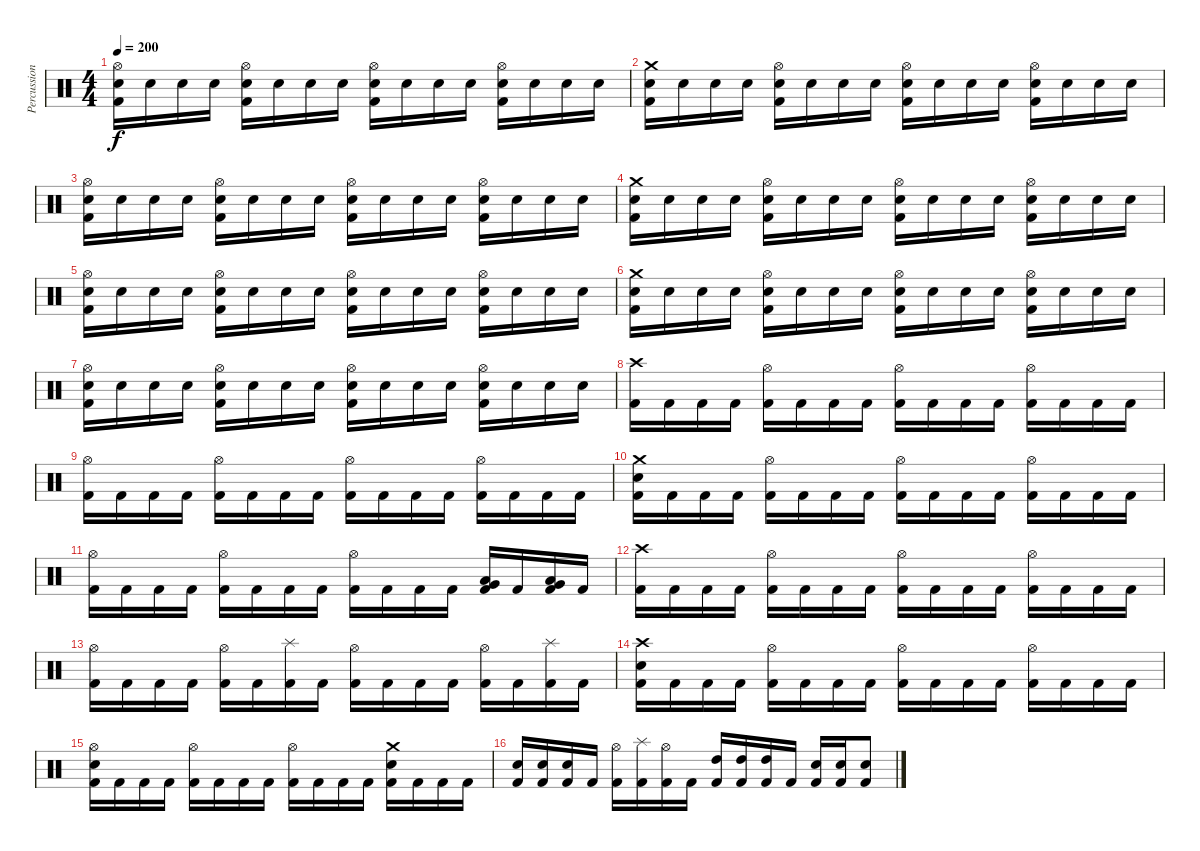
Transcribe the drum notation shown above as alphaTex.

\track ("Percussions" "Percussion") {instrument percussion}
\staff {score}
\articulation defaults
\ts (4 4)
\tempo 200
\clef neutral
\ks c
("Hi-Hat (open)" "Electric Snare (hit)" "Kick (hit) 2").16{dy f} "Electric Snare (hit)".16 "Electric Snare (hit)".16 "Electric Snare (hit)".16 ("Hi-Hat (open)" "Electric Snare (hit)" "Kick (hit) 2").16 "Electric Snare (hit)".16 "Electric Snare (hit)".16 "Electric Snare (hit)".16 ("Hi-Hat (open)" "Electric Snare (hit)" "Kick (hit) 2").16 "Electric Snare (hit)".16 "Electric Snare (hit)".16 "Electric Snare (hit)".16 ("Hi-Hat (open)" "Electric Snare (hit)" "Kick (hit) 2").16 "Electric Snare (hit)".16 "Electric Snare (hit)".16 "Electric Snare (hit)".16 |
("Crash medium (hit)" "Electric Snare (hit)" "Kick (hit) 2").16 "Electric Snare (hit)".16 "Electric Snare (hit)".16 "Electric Snare (hit)".16 ("Hi-Hat (open)" "Electric Snare (hit)" "Kick (hit) 2").16 "Electric Snare (hit)".16 "Electric Snare (hit)".16 "Electric Snare (hit)".16 ("Hi-Hat (open)" "Electric Snare (hit)" "Kick (hit) 2").16 "Electric Snare (hit)".16 "Electric Snare (hit)".16 "Electric Snare (hit)".16 ("Hi-Hat (open)" "Electric Snare (hit)" "Kick (hit) 2").16 "Electric Snare (hit)".16 "Electric Snare (hit)".16 "Electric Snare (hit)".16 |
("Hi-Hat (open)" "Electric Snare (hit)" "Kick (hit) 2").16 "Electric Snare (hit)".16 "Electric Snare (hit)".16 "Electric Snare (hit)".16 ("Hi-Hat (open)" "Electric Snare (hit)" "Kick (hit) 2").16 "Electric Snare (hit)".16 "Electric Snare (hit)".16 "Electric Snare (hit)".16 ("Hi-Hat (open)" "Electric Snare (hit)" "Kick (hit) 2").16 "Electric Snare (hit)".16 "Electric Snare (hit)".16 "Electric Snare (hit)".16 ("Hi-Hat (open)" "Electric Snare (hit)" "Kick (hit) 2").16 "Electric Snare (hit)".16 "Electric Snare (hit)".16 "Electric Snare (hit)".16 |
("Crash medium (hit)" "Electric Snare (hit)" "Kick (hit) 2").16 "Electric Snare (hit)".16 "Electric Snare (hit)".16 "Electric Snare (hit)".16 ("Hi-Hat (open)" "Electric Snare (hit)" "Kick (hit) 2").16 "Electric Snare (hit)".16 "Electric Snare (hit)".16 "Electric Snare (hit)".16 ("Hi-Hat (open)" "Electric Snare (hit)" "Kick (hit) 2").16 "Electric Snare (hit)".16 "Electric Snare (hit)".16 "Electric Snare (hit)".16 ("Hi-Hat (open)" "Electric Snare (hit)" "Kick (hit) 2").16 "Electric Snare (hit)".16 "Electric Snare (hit)".16 "Electric Snare (hit)".16 |
("Hi-Hat (open)" "Electric Snare (hit)" "Kick (hit) 2").16 "Electric Snare (hit)".16 "Electric Snare (hit)".16 "Electric Snare (hit)".16 ("Hi-Hat (open)" "Electric Snare (hit)" "Kick (hit) 2").16 "Electric Snare (hit)".16 "Electric Snare (hit)".16 "Electric Snare (hit)".16 ("Hi-Hat (open)" "Electric Snare (hit)" "Kick (hit) 2").16 "Electric Snare (hit)".16 "Electric Snare (hit)".16 "Electric Snare (hit)".16 ("Hi-Hat (open)" "Electric Snare (hit)" "Kick (hit) 2").16 "Electric Snare (hit)".16 "Electric Snare (hit)".16 "Electric Snare (hit)".16 |
("Crash medium (hit)" "Electric Snare (hit)" "Kick (hit) 2").16 "Electric Snare (hit)".16 "Electric Snare (hit)".16 "Electric Snare (hit)".16 ("Hi-Hat (open)" "Electric Snare (hit)" "Kick (hit) 2").16 "Electric Snare (hit)".16 "Electric Snare (hit)".16 "Electric Snare (hit)".16 ("Hi-Hat (open)" "Electric Snare (hit)" "Kick (hit) 2").16 "Electric Snare (hit)".16 "Electric Snare (hit)".16 "Electric Snare (hit)".16 ("Hi-Hat (open)" "Electric Snare (hit)" "Kick (hit) 2").16 "Electric Snare (hit)".16 "Electric Snare (hit)".16 "Electric Snare (hit)".16 |
("Hi-Hat (open)" "Electric Snare (hit)" "Kick (hit) 2").16 "Electric Snare (hit)".16 "Electric Snare (hit)".16 "Electric Snare (hit)".16 ("Hi-Hat (open)" "Electric Snare (hit)" "Kick (hit) 2").16 "Electric Snare (hit)".16 "Electric Snare (hit)".16 "Electric Snare (hit)".16 ("Hi-Hat (open)" "Electric Snare (hit)" "Kick (hit) 2").16 "Electric Snare (hit)".16 "Electric Snare (hit)".16 "Electric Snare (hit)".16 ("Hi-Hat (open)" "Electric Snare (hit)" "Kick (hit) 2").16 "Electric Snare (hit)".16 "Electric Snare (hit)".16 "Electric Snare (hit)".16 |
("Crash high (hit)" "Kick (hit) 2").16 "Kick (hit) 2".16 "Kick (hit) 2".16 "Kick (hit) 2".16 ("Hi-Hat (open)" "Kick (hit) 2").16 "Kick (hit) 2".16 "Kick (hit) 2".16 "Kick (hit) 2".16 ("Hi-Hat (open)" "Kick (hit) 2").16 "Kick (hit) 2".16 "Kick (hit) 2".16 "Kick (hit) 2".16 ("Hi-Hat (open)" "Kick (hit) 2").16 "Kick (hit) 2".16 "Kick (hit) 2".16 "Kick (hit) 2".16 |
("Hi-Hat (open)" "Kick (hit) 2").16 "Kick (hit) 2".16 "Kick (hit) 2".16 "Kick (hit) 2".16 ("Hi-Hat (open)" "Kick (hit) 2").16 "Kick (hit) 2".16 "Kick (hit) 2".16 "Kick (hit) 2".16 ("Hi-Hat (open)" "Kick (hit) 2").16 "Kick (hit) 2".16 "Kick (hit) 2".16 "Kick (hit) 2".16 ("Hi-Hat (open)" "Kick (hit) 2").16 "Kick (hit) 2".16 "Kick (hit) 2".16 "Kick (hit) 2".16 |
("Crash medium (hit)" "Electric Snare (hit)" "Kick (hit) 2").16 "Kick (hit) 2".16 "Kick (hit) 2".16 "Kick (hit) 2".16 ("Hi-Hat (open)" "Kick (hit) 2").16 "Kick (hit) 2".16 "Kick (hit) 2".16 "Kick (hit) 2".16 ("Hi-Hat (open)" "Kick (hit) 2").16 "Kick (hit) 2".16 "Kick (hit) 2".16 "Kick (hit) 2".16 ("Hi-Hat (open)" "Kick (hit) 2").16 "Kick (hit) 2".16 "Kick (hit) 2".16 "Kick (hit) 2".16 |
("Hi-Hat (open)" "Kick (hit) 2").16 "Kick (hit) 2".16 "Kick (hit) 2".16 "Kick (hit) 2".16 ("Hi-Hat (open)" "Kick (hit) 2").16 "Kick (hit) 2".16 "Kick (hit) 2".16 "Kick (hit) 2".16 ("Hi-Hat (open)" "Kick (hit) 2").16 "Kick (hit) 2".16 "Kick (hit) 2".16 "Kick (hit) 2".16 ("Low Tom (hit)" "Very Low Tom (hit)" "Kick (hit) 2").16 "Kick (hit) 2".16 ("Very Low Tom (hit)" "Low Floor Tom (hit)" "Kick (hit) 2").16 "Kick (hit) 2".16 |
("Crash high (hit)" "Kick (hit) 2").16 "Kick (hit) 2".16 "Kick (hit) 2".16 "Kick (hit) 2".16 ("Hi-Hat (open)" "Kick (hit) 2").16 "Kick (hit) 2".16 "Kick (hit) 2".16 "Kick (hit) 2".16 ("Hi-Hat (open)" "Kick (hit) 2").16 "Kick (hit) 2".16 "Kick (hit) 2".16 "Kick (hit) 2".16 ("Hi-Hat (open)" "Kick (hit) 2").16 "Kick (hit) 2".16 "Kick (hit) 2".16 "Kick (hit) 2".16 |
("Hi-Hat (open)" "Kick (hit) 2").16 "Kick (hit) 2".16 "Kick (hit) 2".16 "Kick (hit) 2".16 ("Hi-Hat (open)" "Kick (hit) 2").16 "Kick (hit) 2".16 ("Splash (hit)" "Kick (hit) 2").16 "Kick (hit) 2".16 ("Hi-Hat (open)" "Kick (hit) 2").16 "Kick (hit) 2".16 "Kick (hit) 2".16 "Kick (hit) 2".16 ("Hi-Hat (open)" "Kick (hit) 2").16 "Kick (hit) 2".16 ("Splash (hit)" "Kick (hit) 2").16 "Kick (hit) 2".16 |
("Crash high (hit)" "Electric Snare (hit)" "Kick (hit) 2").16 "Kick (hit) 2".16 "Kick (hit) 2".16 "Kick (hit) 2".16 ("Hi-Hat (open)" "Kick (hit) 2").16 "Kick (hit) 2".16 "Kick (hit) 2".16 "Kick (hit) 2".16 ("Hi-Hat (open)" "Kick (hit) 2").16 "Kick (hit) 2".16 "Kick (hit) 2".16 "Kick (hit) 2".16 ("Hi-Hat (open)" "Kick (hit) 2").16 "Kick (hit) 2".16 "Kick (hit) 2".16 "Kick (hit) 2".16 |
("Hi-Hat (open)" "Electric Snare (hit)" "Kick (hit) 2").16 "Kick (hit) 2".16 "Kick (hit) 2".16 "Kick (hit) 2".16 ("Hi-Hat (open)" "Kick (hit) 2").16 "Kick (hit) 2".16 "Kick (hit) 2".16 "Kick (hit) 2".16 ("Hi-Hat (open)" "Kick (hit) 2").16 "Kick (hit) 2".16 "Kick (hit) 2".16 "Kick (hit) 2".16 ("Crash medium (hit)" "Electric Snare (hit)" "Kick (hit) 2").16 "Kick (hit) 2".16 "Kick (hit) 2".16 "Kick (hit) 2".16 |
("Electric Snare (hit)" "Kick (hit) 2").16 ("Electric Snare (hit)" "Kick (hit) 2").16 ("Electric Snare (hit)" "Kick (hit) 2").16 "Kick (hit) 2".16 ("Hi-Hat (open)" "Kick (hit) 2").16 ("Splash (hit)" "Kick (hit) 2").16 ("Hi-Hat (open)" "Kick (hit) 2").16 "Kick (hit) 2".16 ("High Tom (hit)" "Kick (hit) 2").16 ("High Tom (hit)" "Kick (hit) 2").16 ("High Tom (hit)" "Kick (hit) 2").16 "Kick (hit) 2".16 ("Electric Snare (hit)" "Kick (hit) 2").16 ("Electric Snare (hit)" "Kick (hit) 2").16 ("Electric Snare (hit)" "Kick (hit) 2").8
